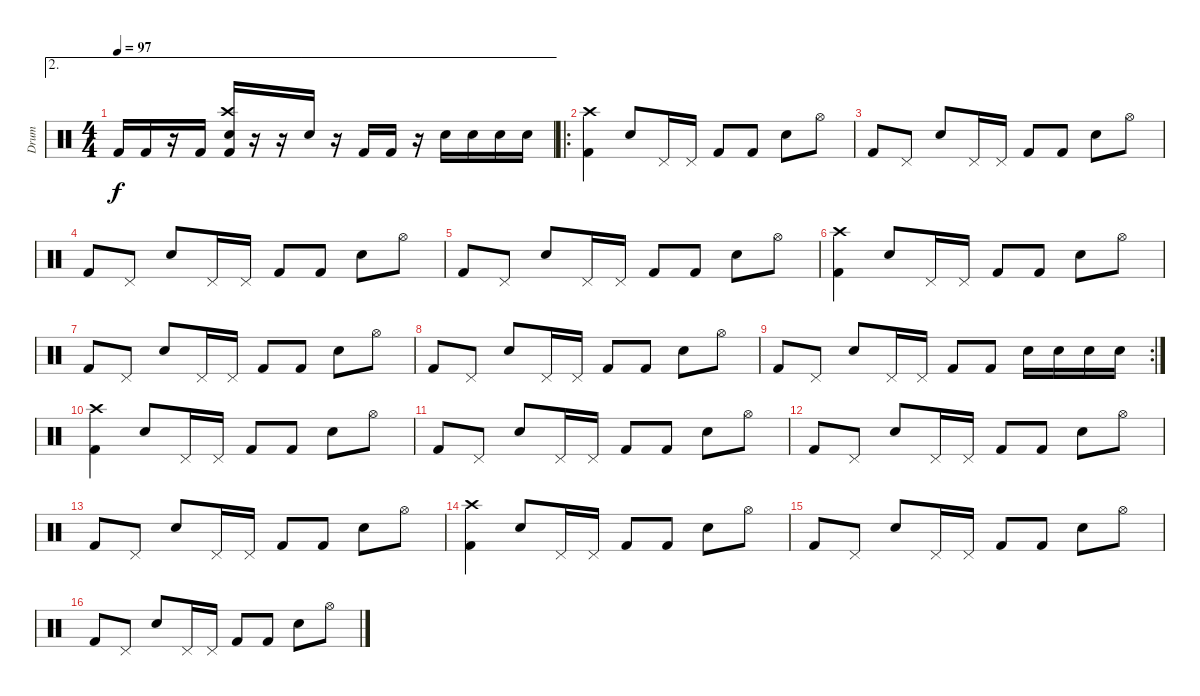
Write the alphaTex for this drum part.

\track ("Drum" "Drum") {instrument percussion}
\staff {score}
\articulation defaults
\ae 2
\ts (4 4)
\tempo 97
\clef neutral
\ks c "Kick (hit) 2".16{dy f} "Kick (hit) 2".16
r.16 "Kick (hit) 2".16 ("Crash high (hit)" "Electric Snare (hit)" "Kick (hit) 2").16 r.16 r.16 "Electric Snare (hit)".16 r.16 "Kick (hit) 2".16 "Kick (hit) 2".16 r.16 "Electric Snare (hit)".16 "Electric Snare (hit)".16 "Electric Snare (hit)".16 "Electric Snare (hit)".16 |
\ro
("Crash high (hit)" "Kick (hit) 2").4 "Electric Snare (hit)".8 "Pedal Hi-Hat (hit)".16 "Pedal Hi-Hat (hit)".16 "Kick (hit) 2".8 "Kick (hit) 2".8 "Electric Snare (hit)".8 "Hi-Hat (open)".8 |
"Kick (hit) 2".8 "Pedal Hi-Hat (hit)".8 "Electric Snare (hit)".8 "Pedal Hi-Hat (hit)".16 "Pedal Hi-Hat (hit)".16 "Kick (hit) 2".8 "Kick (hit) 2".8 "Electric Snare (hit)".8 "Hi-Hat (open)".8 |
"Kick (hit) 2".8 "Pedal Hi-Hat (hit)".8 "Electric Snare (hit)".8 "Pedal Hi-Hat (hit)".16 "Pedal Hi-Hat (hit)".16 "Kick (hit) 2".8 "Kick (hit) 2".8 "Electric Snare (hit)".8 "Hi-Hat (open)".8 |
"Kick (hit) 2".8 "Pedal Hi-Hat (hit)".8 "Electric Snare (hit)".8 "Pedal Hi-Hat (hit)".16 "Pedal Hi-Hat (hit)".16 "Kick (hit) 2".8 "Kick (hit) 2".8 "Electric Snare (hit)".8 "Hi-Hat (open)".8 |
("Crash high (hit)" "Kick (hit) 2").4 "Electric Snare (hit)".8 "Pedal Hi-Hat (hit)".16 "Pedal Hi-Hat (hit)".16 "Kick (hit) 2".8 "Kick (hit) 2".8 "Electric Snare (hit)".8 "Hi-Hat (open)".8 |
"Kick (hit) 2".8 "Pedal Hi-Hat (hit)".8 "Electric Snare (hit)".8 "Pedal Hi-Hat (hit)".16 "Pedal Hi-Hat (hit)".16 "Kick (hit) 2".8 "Kick (hit) 2".8 "Electric Snare (hit)".8 "Hi-Hat (open)".8 |
"Kick (hit) 2".8 "Pedal Hi-Hat (hit)".8 "Electric Snare (hit)".8 "Pedal Hi-Hat (hit)".16 "Pedal Hi-Hat (hit)".16 "Kick (hit) 2".8 "Kick (hit) 2".8 "Electric Snare (hit)".8 "Hi-Hat (open)".8 |
\rc 2 "Kick (hit) 2".8 "Pedal Hi-Hat (hit)".8 "Electric Snare (hit)".8 "Pedal Hi-Hat (hit)".16 "Pedal Hi-Hat (hit)".16 "Kick (hit) 2".8 "Kick (hit) 2".8 "Electric Snare (hit)".16 "Electric Snare (hit)".16 "Electric Snare (hit)".16 "Electric Snare (hit)".16
|
("Crash high (hit)" "Kick (hit) 2").4 "Electric Snare (hit)".8 "Pedal Hi-Hat (hit)".16 "Pedal Hi-Hat (hit)".16 "Kick (hit) 2".8 "Kick (hit) 2".8 "Electric Snare (hit)".8 "Hi-Hat (open)".8 |
"Kick (hit) 2".8 "Pedal Hi-Hat (hit)".8 "Electric Snare (hit)".8 "Pedal Hi-Hat (hit)".16 "Pedal Hi-Hat (hit)".16 "Kick (hit) 2".8 "Kick (hit) 2".8 "Electric Snare (hit)".8 "Hi-Hat (open)".8 |
"Kick (hit) 2".8 "Pedal Hi-Hat (hit)".8 "Electric Snare (hit)".8 "Pedal Hi-Hat (hit)".16 "Pedal Hi-Hat (hit)".16 "Kick (hit) 2".8 "Kick (hit) 2".8 "Electric Snare (hit)".8 "Hi-Hat (open)".8 |
"Kick (hit) 2".8 "Pedal Hi-Hat (hit)".8 "Electric Snare (hit)".8 "Pedal Hi-Hat (hit)".16 "Pedal Hi-Hat (hit)".16 "Kick (hit) 2".8 "Kick (hit) 2".8 "Electric Snare (hit)".8 "Hi-Hat (open)".8 |
("Crash high (hit)" "Kick (hit) 2").4 "Electric Snare (hit)".8 "Pedal Hi-Hat (hit)".16 "Pedal Hi-Hat (hit)".16 "Kick (hit) 2".8 "Kick (hit) 2".8 "Electric Snare (hit)".8 "Hi-Hat (open)".8 |
"Kick (hit) 2".8 "Pedal Hi-Hat (hit)".8 "Electric Snare (hit)".8 "Pedal Hi-Hat (hit)".16 "Pedal Hi-Hat (hit)".16 "Kick (hit) 2".8 "Kick (hit) 2".8 "Electric Snare (hit)".8 "Hi-Hat (open)".8 |
"Kick (hit) 2".8 "Pedal Hi-Hat (hit)".8 "Electric Snare (hit)".8 "Pedal Hi-Hat (hit)".16 "Pedal Hi-Hat (hit)".16 "Kick (hit) 2".8 "Kick (hit) 2".8 "Electric Snare (hit)".8 "Hi-Hat (open)".8
